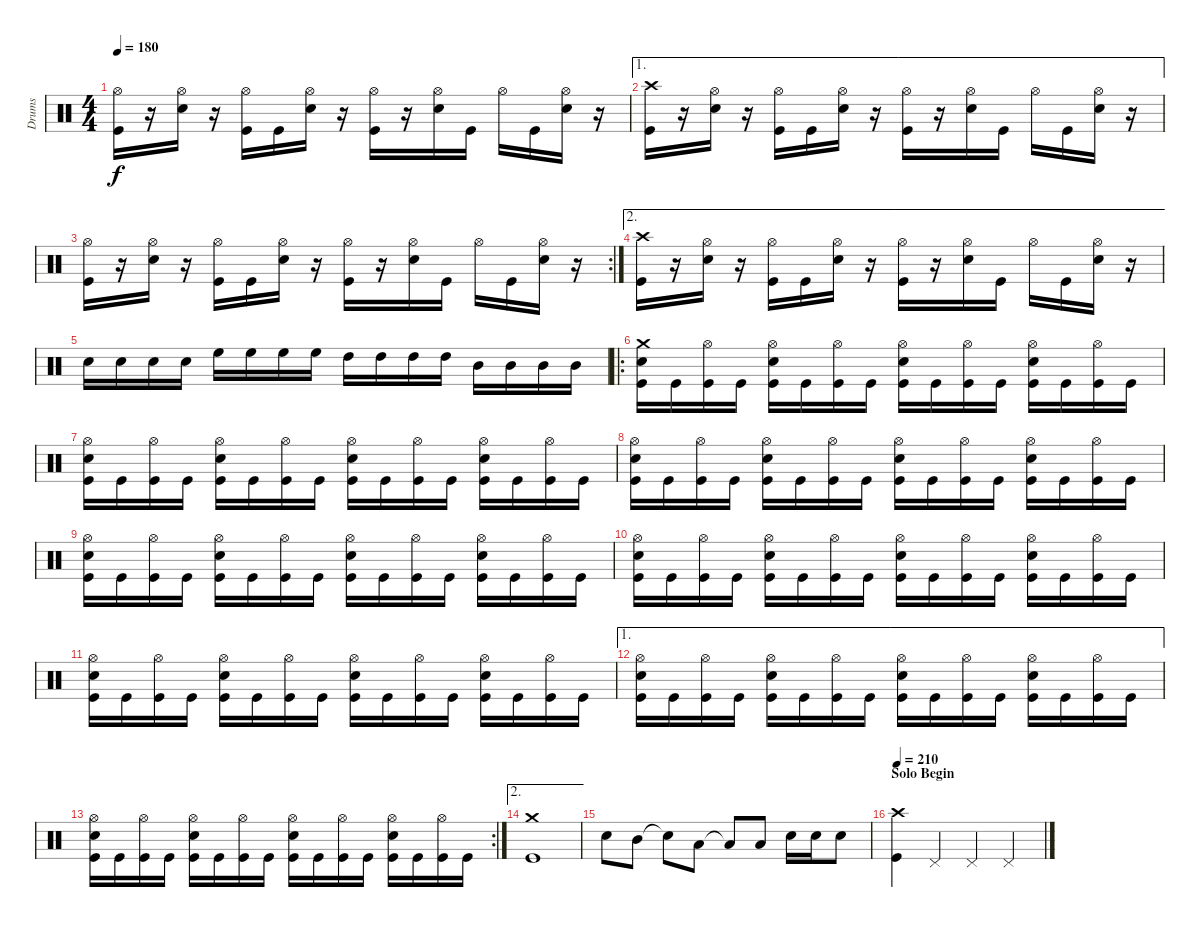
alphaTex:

\track ("Drums" "Drums") {instrument percussion}
\staff {score}
\articulation defaults
\ts (4 4)
\tempo 180
\clef neutral
\ks c
("Hi-Hat (open)" "Kick (hit)").16{dy f} r.16 ("Hi-Hat (open)" "Electric Snare (hit)").16 r.16 ("Hi-Hat (open)" "Kick (hit)").16 "Kick (hit)".16 ("Hi-Hat (open)" "Electric Snare (hit)").16 r.16 ("Hi-Hat (open)" "Kick (hit)").16 r.16 ("Hi-Hat (open)" "Electric Snare (hit)").16 "Kick (hit)".16 "Hi-Hat (open)".16 "Kick (hit)".16 ("Hi-Hat (open)" "Electric Snare (hit)").16 r.16 |
\ae 1
("Crash high (hit)" "Kick (hit)").16 r.16 ("Hi-Hat (open)" "Electric Snare (hit)").16 r.16 ("Hi-Hat (open)" "Kick (hit)").16 "Kick (hit)".16 ("Hi-Hat (open)" "Electric Snare (hit)").16 r.16 ("Hi-Hat (open)" "Kick (hit)").16 r.16 ("Hi-Hat (open)" "Electric Snare (hit)").16 "Kick (hit)".16 "Hi-Hat (open)".16 "Kick (hit)".16 ("Hi-Hat (open)" "Electric Snare (hit)").16 r.16 |
\rc 2
("Hi-Hat (open)" "Kick (hit)").16 r.16 ("Hi-Hat (open)" "Electric Snare (hit)").16 r.16 ("Hi-Hat (open)" "Kick (hit)").16 "Kick (hit)".16 ("Hi-Hat (open)" "Electric Snare (hit)").16 r.16 ("Hi-Hat (open)" "Kick (hit)").16 r.16 ("Hi-Hat (open)" "Electric Snare (hit)").16 "Kick (hit)".16 "Hi-Hat (open)".16 "Kick (hit)".16 ("Hi-Hat (open)" "Electric Snare (hit)").16 r.16 |
\ae 2
("Crash high (hit)" "Kick (hit)").16 r.16 ("Hi-Hat (open)" "Electric Snare (hit)").16 r.16 ("Hi-Hat (open)" "Kick (hit)").16 "Kick (hit)".16 ("Hi-Hat (open)" "Electric Snare (hit)").16 r.16 ("Hi-Hat (open)" "Kick (hit)").16 r.16 ("Hi-Hat (open)" "Electric Snare (hit)").16 "Kick (hit)".16 "Hi-Hat (open)".16 "Kick (hit)".16 ("Hi-Hat (open)" "Electric Snare (hit)").16 r.16 |
"Electric Snare (hit)".16 "Electric Snare (hit)".16 "Electric Snare (hit)".16 "Electric Snare (hit)".16 "High Floor Tom (hit)".16 "High Floor Tom (hit)".16 "High Floor Tom (hit)".16 "High Floor Tom (hit)".16 "High Tom (hit)".16 "High Tom (hit)".16 "High Tom (hit)".16 "High Tom (hit)".16 "Mid Tom (hit)".16 "Mid Tom (hit)".16 "Mid Tom (hit)".16 "Mid Tom (hit)".16 |
\ro
("Crash medium (hit)" "Electric Snare (hit)" "Kick (hit)").16 "Kick (hit)".16 ("Hi-Hat (open)" "Kick (hit)").16 "Kick (hit)".16 ("Hi-Hat (open)" "Electric Snare (hit)" "Kick (hit)").16 "Kick (hit)".16 ("Hi-Hat (open)" "Kick (hit)").16 "Kick (hit)".16 ("Hi-Hat (open)" "Electric Snare (hit)" "Kick (hit)").16 "Kick (hit)".16 ("Hi-Hat (open)" "Kick (hit)").16 "Kick (hit)".16 ("Hi-Hat (open)" "Electric Snare (hit)" "Kick (hit)").16 "Kick (hit)".16 ("Hi-Hat (open)" "Kick (hit)").16 "Kick (hit)".16 |
("Hi-Hat (open)" "Electric Snare (hit)" "Kick (hit)").16 "Kick (hit)".16 ("Hi-Hat (open)" "Kick (hit)").16 "Kick (hit)".16 ("Hi-Hat (open)" "Electric Snare (hit)" "Kick (hit)").16 "Kick (hit)".16 ("Hi-Hat (open)" "Kick (hit)").16 "Kick (hit)".16 ("Hi-Hat (open)" "Electric Snare (hit)" "Kick (hit)").16 "Kick (hit)".16 ("Hi-Hat (open)" "Kick (hit)").16 "Kick (hit)".16 ("Hi-Hat (open)" "Electric Snare (hit)" "Kick (hit)").16 "Kick (hit)".16 ("Hi-Hat (open)" "Kick (hit)").16 "Kick (hit)".16 |
("Hi-Hat (open)" "Electric Snare (hit)" "Kick (hit)").16 "Kick (hit)".16 ("Hi-Hat (open)" "Kick (hit)").16 "Kick (hit)".16 ("Hi-Hat (open)" "Electric Snare (hit)" "Kick (hit)").16 "Kick (hit)".16 ("Hi-Hat (open)" "Kick (hit)").16 "Kick (hit)".16 ("Hi-Hat (open)" "Electric Snare (hit)" "Kick (hit)").16 "Kick (hit)".16 ("Hi-Hat (open)" "Kick (hit)").16 "Kick (hit)".16 ("Hi-Hat (open)" "Electric Snare (hit)" "Kick (hit)").16 "Kick (hit)".16 ("Hi-Hat (open)" "Kick (hit)").16 "Kick (hit)".16 |
("Hi-Hat (open)" "Electric Snare (hit)" "Kick (hit)").16 "Kick (hit)".16 ("Hi-Hat (open)" "Kick (hit)").16 "Kick (hit)".16 ("Hi-Hat (open)" "Electric Snare (hit)" "Kick (hit)").16 "Kick (hit)".16 ("Hi-Hat (open)" "Kick (hit)").16 "Kick (hit)".16 ("Hi-Hat (open)" "Electric Snare (hit)" "Kick (hit)").16 "Kick (hit)".16 ("Hi-Hat (open)" "Kick (hit)").16 "Kick (hit)".16 ("Hi-Hat (open)" "Electric Snare (hit)" "Kick (hit)").16 "Kick (hit)".16 ("Hi-Hat (open)" "Kick (hit)").16 "Kick (hit)".16 |
("Hi-Hat (open)" "Electric Snare (hit)" "Kick (hit)").16 "Kick (hit)".16 ("Hi-Hat (open)" "Kick (hit)").16 "Kick (hit)".16 ("Hi-Hat (open)" "Electric Snare (hit)" "Kick (hit)").16 "Kick (hit)".16 ("Hi-Hat (open)" "Kick (hit)").16 "Kick (hit)".16 ("Hi-Hat (open)" "Electric Snare (hit)" "Kick (hit)").16 "Kick (hit)".16 ("Hi-Hat (open)" "Kick (hit)").16 "Kick (hit)".16 ("Hi-Hat (open)" "Electric Snare (hit)" "Kick (hit)").16 "Kick (hit)".16 ("Hi-Hat (open)" "Kick (hit)").16 "Kick (hit)".16 |
("Hi-Hat (open)" "Electric Snare (hit)" "Kick (hit)").16 "Kick (hit)".16 ("Hi-Hat (open)" "Kick (hit)").16 "Kick (hit)".16 ("Hi-Hat (open)" "Electric Snare (hit)" "Kick (hit)").16 "Kick (hit)".16 ("Hi-Hat (open)" "Kick (hit)").16 "Kick (hit)".16 ("Hi-Hat (open)" "Electric Snare (hit)" "Kick (hit)").16 "Kick (hit)".16 ("Hi-Hat (open)" "Kick (hit)").16 "Kick (hit)".16 ("Hi-Hat (open)" "Electric Snare (hit)" "Kick (hit)").16 "Kick (hit)".16 ("Hi-Hat (open)" "Kick (hit)").16 "Kick (hit)".16 |
\ae 1
("Hi-Hat (open)" "Electric Snare (hit)" "Kick (hit)").16 "Kick (hit)".16 ("Hi-Hat (open)" "Kick (hit)").16 "Kick (hit)".16 ("Hi-Hat (open)" "Electric Snare (hit)" "Kick (hit)").16 "Kick (hit)".16 ("Hi-Hat (open)" "Kick (hit)").16 "Kick (hit)".16 ("Hi-Hat (open)" "Electric Snare (hit)" "Kick (hit)").16 "Kick (hit)".16 ("Hi-Hat (open)" "Kick (hit)").16 "Kick (hit)".16 ("Hi-Hat (open)" "Electric Snare (hit)" "Kick (hit)").16 "Kick (hit)".16 ("Hi-Hat (open)" "Kick (hit)").16 "Kick (hit)".16 |
\rc 2
("Hi-Hat (open)" "Electric Snare (hit)" "Kick (hit)").16 "Kick (hit)".16 ("Hi-Hat (open)" "Kick (hit)").16 "Kick (hit)".16 ("Hi-Hat (open)" "Electric Snare (hit)" "Kick (hit)").16 "Kick (hit)".16 ("Hi-Hat (open)" "Kick (hit)").16 "Kick (hit)".16 ("Hi-Hat (open)" "Electric Snare (hit)" "Kick (hit)").16 "Kick (hit)".16 ("Hi-Hat (open)" "Kick (hit)").16 "Kick (hit)".16 ("Hi-Hat (open)" "Electric Snare (hit)" "Kick (hit)").16 "Kick (hit)".16 ("Hi-Hat (open)" "Kick (hit)").16 "Kick (hit)".16 |
\ae 2
("Crash medium (hit)" "Kick (hit)").1 |
"Electric Snare (hit)".8 "Mid Tom (hit)".8 "Snare (hit)"{t}.8 "Low Tom (hit)".8 "Low Tom (hit)"{t}.8 "Low Tom (hit)".8 "Electric Snare (hit)".16 "Electric Snare (hit)".16 "Electric Snare (hit)".8 |
\section ("" "Solo Begin")
\tempo 210
("Crash high (hit)" "Kick (hit)").4 "Pedal Hi-Hat (hit)".4 "Pedal Hi-Hat (hit)".4 "Pedal Hi-Hat (hit)".4
